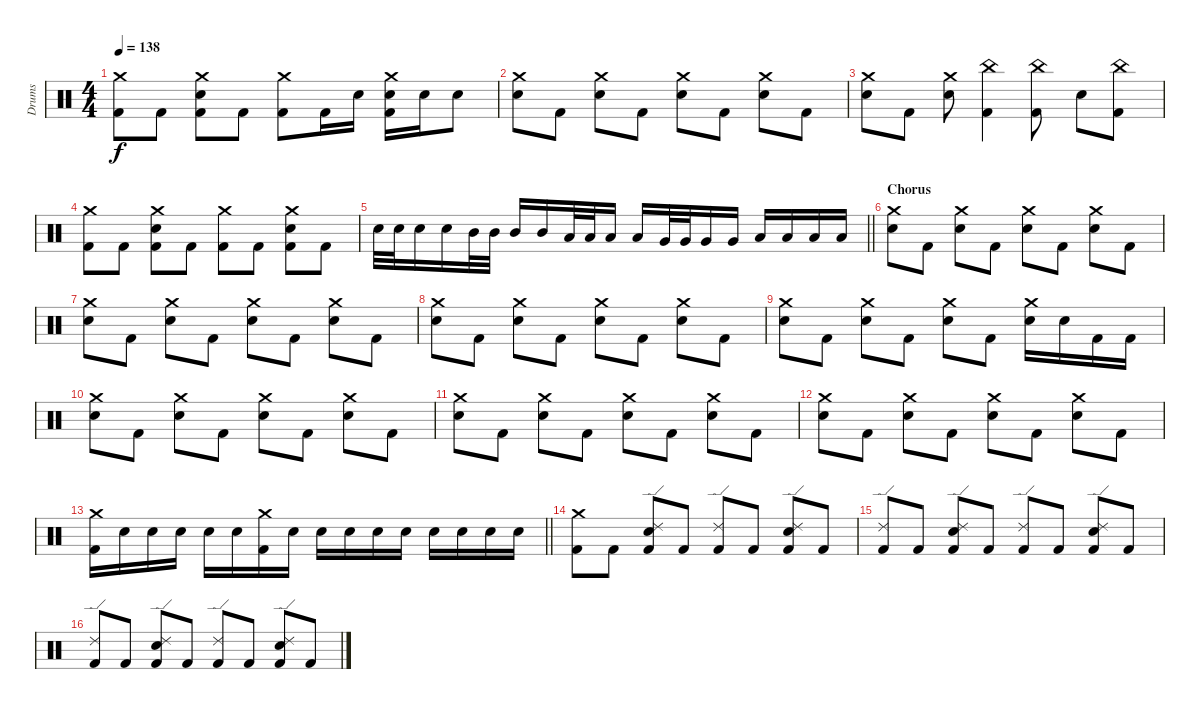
\track ("Drums" "Drums") {instrument percussion}
\staff {score}
\articulation defaults
\ts (4 4)
\tempo 138
\clef neutral
\ks c
("Crash medium (hit)" "Kick (hit) 2").8{dy f} "Kick (hit) 2".8 ("Crash medium (hit)" "Snare (hit) 2" "Kick (hit) 2").8 "Kick (hit) 2".8 ("Crash medium (hit)" "Kick (hit) 2").8 "Kick (hit) 2".16 "Snare (hit) 2".16 ("Crash medium (hit)" "Snare (hit) 2" "Kick (hit) 2").16 "Snare (hit) 2".16 "Snare (hit) 2".8 |
("Crash medium (hit)" "Snare (hit) 2").8 "Kick (hit) 2".8 ("Crash medium (hit)" "Snare (hit) 2").8 "Kick (hit) 2".8 ("Crash medium (hit)" "Snare (hit) 2").8 "Kick (hit) 2".8 ("Crash medium (hit)" "Snare (hit) 2").8 "Kick (hit) 2".8 |
("Crash medium (hit)" "Snare (hit) 2").8 "Kick (hit) 2".8 ("Crash medium (hit)" "Snare (hit) 2").8 ("China (hit)" "Kick (hit) 2").4 ("China (hit)" "Kick (hit) 2").8 "Snare (hit) 2".8 ("China (hit)" "Kick (hit) 2").8 |
("Crash medium (hit)" "Kick (hit) 2").8 "Kick (hit) 2".8 ("Crash medium (hit)" "Snare (hit) 2" "Kick (hit) 2").8 "Kick (hit) 2".8 ("Crash medium (hit)" "Kick (hit) 2").8 "Kick (hit) 2".8 ("Crash medium (hit)" "Snare (hit) 2" "Kick (hit) 2").8 "Kick (hit) 2".8 |
\barLineRight lightlight "Snare (hit) 2".32 "Snare (hit) 2".32 "Snare (hit) 2".16 "Snare (hit) 2".16 "Mid Tom (hit)".32 "Mid Tom (hit)".32 "Mid Tom (hit)".16 "Mid Tom (hit)".16 "Low Tom (hit)".32 "Low Tom (hit)".32 "Low Tom (hit)".16 "Low Tom (hit)".16 "Very Low Tom (hit)".32 "Very Low Tom (hit)".32 "Very Low Tom (hit)".16 "Very Low Tom (hit)".16 "Low Floor Tom (hit)".16 "Low Floor Tom (hit)".16 "Low Floor Tom (hit)".16 "Low Floor Tom (hit)".16
|
\section ("" "Chorus")
("Crash medium (hit)" "Snare (hit) 2").8 "Kick (hit) 2".8 ("Crash medium (hit)" "Snare (hit) 2").8 "Kick (hit) 2".8 ("Crash medium (hit)" "Snare (hit) 2").8 "Kick (hit) 2".8 ("Crash medium (hit)" "Snare (hit) 2").8 "Kick (hit) 2".8 |
("Crash medium (hit)" "Snare (hit) 2").8 "Kick (hit) 2".8 ("Crash medium (hit)" "Snare (hit) 2").8 "Kick (hit) 2".8 ("Crash medium (hit)" "Snare (hit) 2").8 "Kick (hit) 2".8 ("Crash medium (hit)" "Snare (hit) 2").8 "Kick (hit) 2".8 |
("Crash medium (hit)" "Snare (hit) 2").8 "Kick (hit) 2".8 ("Crash medium (hit)" "Snare (hit) 2").8 "Kick (hit) 2".8 ("Crash medium (hit)" "Snare (hit) 2").8 "Kick (hit) 2".8 ("Crash medium (hit)" "Snare (hit) 2").8 "Kick (hit) 2".8 |
("Crash medium (hit)" "Snare (hit) 2").8 "Kick (hit) 2".8 ("Crash medium (hit)" "Snare (hit) 2").8 "Kick (hit) 2".8 ("Crash medium (hit)" "Snare (hit) 2").8 "Kick (hit) 2".8 ("Crash medium (hit)" "Snare (hit) 2").16 "Snare (hit) 2".16 "Kick (hit) 2".16 "Kick (hit) 2".16 |
("Crash medium (hit)" "Snare (hit) 2").8 "Kick (hit) 2".8 ("Crash medium (hit)" "Snare (hit) 2").8 "Kick (hit) 2".8 ("Crash medium (hit)" "Snare (hit) 2").8 "Kick (hit) 2".8 ("Crash medium (hit)" "Snare (hit) 2").8 "Kick (hit) 2".8 |
("Crash medium (hit)" "Snare (hit) 2").8 "Kick (hit) 2".8 ("Crash medium (hit)" "Snare (hit) 2").8 "Kick (hit) 2".8 ("Crash medium (hit)" "Snare (hit) 2").8 "Kick (hit) 2".8 ("Crash medium (hit)" "Snare (hit) 2").8 "Kick (hit) 2".8 |
("Crash medium (hit)" "Snare (hit) 2").8 "Kick (hit) 2".8 ("Crash medium (hit)" "Snare (hit) 2").8 "Kick (hit) 2".8 ("Crash medium (hit)" "Snare (hit) 2").8 "Kick (hit) 2".8 ("Crash medium (hit)" "Snare (hit) 2").8 "Kick (hit) 2".8 |
\barLineRight lightlight
("Crash medium (hit)" "Kick (hit) 2").16 "Snare (hit) 2".16 "Snare (hit) 2".16 "Snare (hit) 2".16 "Snare (hit) 2".16 "Snare (hit) 2".16 ("Crash medium (hit)" "Kick (hit) 2").16 "Snare (hit) 2".16 "Snare (hit) 2".16 "Snare (hit) 2".16 "Snare (hit) 2".16 "Snare (hit) 2".16 "Snare (hit) 2".16 "Snare (hit) 2".16 "Snare (hit) 2".16 "Snare (hit) 2".16 |
\section ("" "")
("Crash medium (hit)" "Kick (hit) 2").8 "Kick (hit) 2".8 ("Ride (edge) 2" "Snare (hit) 2" "Kick (hit) 2").8 "Kick (hit) 2".8 ("Ride (edge) 2" "Kick (hit) 2").8 "Kick (hit) 2".8 ("Ride (edge) 2" "Snare (hit) 2" "Kick (hit) 2").8 "Kick (hit) 2".8 |
("Ride (edge) 2" "Kick (hit) 2").8 "Kick (hit) 2".8 ("Ride (edge) 2" "Snare (hit) 2" "Kick (hit) 2").8 "Kick (hit) 2".8 ("Ride (edge) 2" "Kick (hit) 2").8 "Kick (hit) 2".8 ("Ride (edge) 2" "Snare (hit) 2" "Kick (hit) 2").8 "Kick (hit) 2".8 |
("Ride (edge) 2" "Kick (hit) 2").8 "Kick (hit) 2".8 ("Ride (edge) 2" "Snare (hit) 2" "Kick (hit) 2").8 "Kick (hit) 2".8 ("Ride (edge) 2" "Kick (hit) 2").8 "Kick (hit) 2".8 ("Ride (edge) 2" "Snare (hit) 2" "Kick (hit) 2").8 "Kick (hit) 2".8
